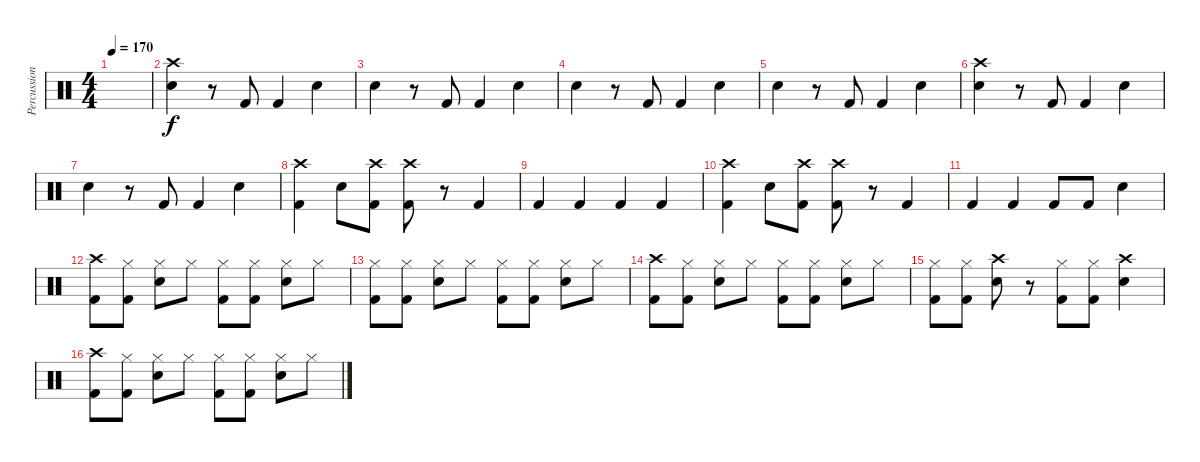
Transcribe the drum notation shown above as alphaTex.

\track ("Percussion" "Percussion") {instrument percussion}
\staff {score}
\articulation defaults
\ts (4 4)
\tempo 170
\clef neutral
\ks c
|
("Crash high (hit)" "Snare (hit) 2").4 r.8 "Kick (hit) 2".8 "Kick (hit) 2".4 "Snare (hit) 2".4 |
"Snare (hit) 2".4 r.8 "Kick (hit) 2".8 "Kick (hit) 2".4 "Snare (hit) 2".4 |
"Snare (hit) 2".4 r.8 "Kick (hit) 2".8 "Kick (hit) 2".4 "Snare (hit) 2".4 |
"Snare (hit) 2".4 r.8 "Kick (hit) 2".8 "Kick (hit) 2".4 "Snare (hit) 2".4 |
("Crash high (hit)" "Snare (hit) 2").4 r.8 "Kick (hit) 2".8 "Kick (hit) 2".4 "Snare (hit) 2".4 |
"Snare (hit) 2".4 r.8 "Kick (hit) 2".8 "Kick (hit) 2".4 "Snare (hit) 2".4 |
("Crash high (hit)" "Kick (hit) 2").4 "Snare (hit) 2".8 ("Crash high (hit)" "Kick (hit) 2").8 ("Crash high (hit)" "Kick (hit) 2").8 r.8 "Kick (hit) 2".4 |
"Kick (hit) 2".4 "Kick (hit) 2".4 "Kick (hit) 2".4 "Kick (hit) 2".4 |
("Crash high (hit)" "Kick (hit) 2").4 "Snare (hit) 2".8 ("Crash high (hit)" "Kick (hit) 2").8 ("Crash high (hit)" "Kick (hit) 2").8 r.8 "Kick (hit) 2".4 |
"Kick (hit) 2".4 "Kick (hit) 2".4 "Kick (hit) 2".8 "Kick (hit) 2".8 "Snare (hit) 2".4 |
("Crash high (hit)" "Kick (hit) 2").8 ("Hi-Hat (closed)" "Kick (hit) 2").8 ("Hi-Hat (closed)" "Snare (hit) 2").8 "Hi-Hat (closed)".8 ("Hi-Hat (closed)" "Kick (hit) 2").8 ("Hi-Hat (closed)" "Kick (hit) 2").8 ("Hi-Hat (closed)" "Snare (hit) 2").8 "Hi-Hat (closed)".8 |
("Hi-Hat (closed)" "Kick (hit) 2").8 ("Hi-Hat (closed)" "Kick (hit) 2").8 ("Hi-Hat (closed)" "Snare (hit) 2").8 "Hi-Hat (closed)".8 ("Hi-Hat (closed)" "Kick (hit) 2").8 ("Hi-Hat (closed)" "Kick (hit) 2").8 ("Hi-Hat (closed)" "Snare (hit) 2").8 "Hi-Hat (closed)".8 |
("Crash high (hit)" "Kick (hit) 2").8 ("Hi-Hat (closed)" "Kick (hit) 2").8 ("Hi-Hat (closed)" "Snare (hit) 2").8 "Hi-Hat (closed)".8 ("Hi-Hat (closed)" "Kick (hit) 2").8 ("Hi-Hat (closed)" "Kick (hit) 2").8 ("Hi-Hat (closed)" "Snare (hit) 2").8 "Hi-Hat (closed)".8 |
("Hi-Hat (closed)" "Kick (hit) 2").8 ("Hi-Hat (closed)" "Kick (hit) 2").8 ("Crash high (hit)" "Snare (hit) 2").8 r.8 ("Hi-Hat (closed)" "Kick (hit) 2").8 ("Hi-Hat (closed)" "Kick (hit) 2").8 ("Crash high (hit)" "Snare (hit) 2").4 |
("Crash high (hit)" "Kick (hit) 2").8 ("Hi-Hat (closed)" "Kick (hit) 2").8 ("Hi-Hat (closed)" "Snare (hit) 2").8 "Hi-Hat (closed)".8 ("Hi-Hat (closed)" "Kick (hit) 2").8 ("Hi-Hat (closed)" "Kick (hit) 2").8 ("Hi-Hat (closed)" "Snare (hit) 2").8 "Hi-Hat (closed)".8
